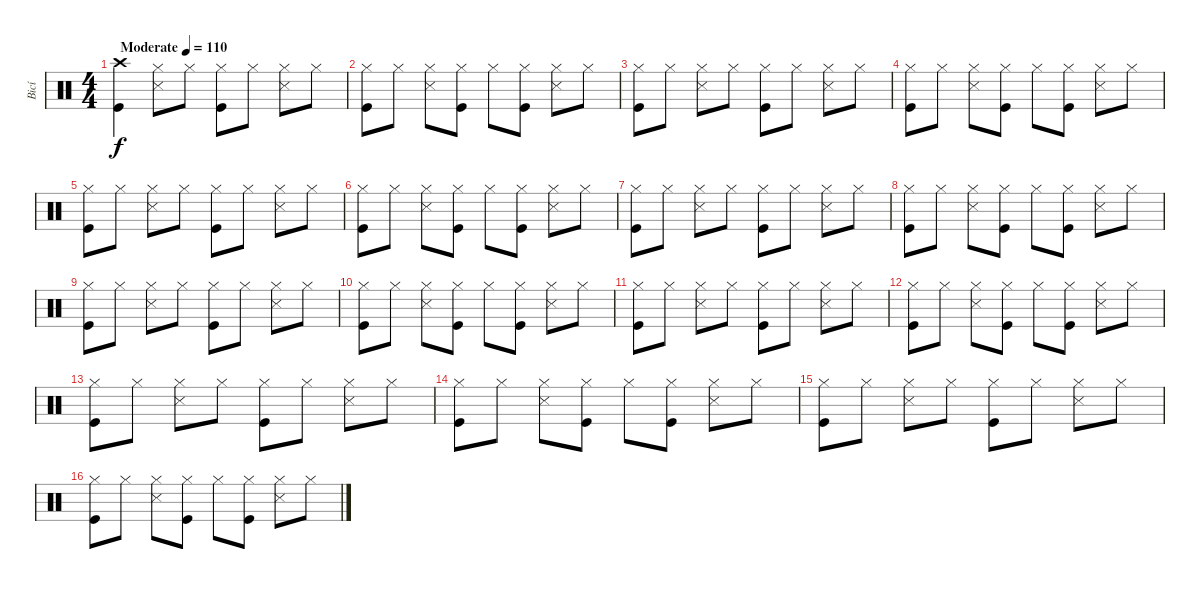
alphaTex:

\track ("Bicí" "Bicí") {instrument percussion}
\staff
\articulation defaults
\ts (4 4)
\tempo (110 "Moderate")
\clef neutral
\ks c
("Crash high (hit)" "Kick (hit)").4{dy f} ("Hi-Hat (closed)" "Snare (side stick) 3").8 "Hi-Hat (closed)".8 ("Hi-Hat (closed)" "Kick (hit)").8 "Hi-Hat (closed)".8 ("Hi-Hat (closed)" "Snare (side stick) 3").8 "Hi-Hat (closed)".8 |
("Hi-Hat (closed)" "Kick (hit)").8 "Hi-Hat (closed)".8 ("Hi-Hat (closed)" "Snare (side stick) 3").8 ("Hi-Hat (closed)" "Kick (hit)").8 "Hi-Hat (closed)".8 ("Hi-Hat (closed)" "Kick (hit)").8 ("Hi-Hat (closed)" "Snare (side stick) 3").8 "Hi-Hat (closed)".8 |
("Hi-Hat (closed)" "Kick (hit)").8 "Hi-Hat (closed)".8 ("Hi-Hat (closed)" "Snare (side stick) 3").8 "Hi-Hat (closed)".8 ("Hi-Hat (closed)" "Kick (hit)").8 "Hi-Hat (closed)".8 ("Hi-Hat (closed)" "Snare (side stick) 3").8 "Hi-Hat (closed)".8 |
("Hi-Hat (closed)" "Kick (hit)").8 "Hi-Hat (closed)".8 ("Hi-Hat (closed)" "Snare (side stick) 3").8 ("Hi-Hat (closed)" "Kick (hit)").8 "Hi-Hat (closed)".8 ("Hi-Hat (closed)" "Kick (hit)").8 ("Hi-Hat (closed)" "Snare (side stick) 3").8 "Hi-Hat (closed)".8 |
("Hi-Hat (closed)" "Kick (hit)").8 "Hi-Hat (closed)".8 ("Hi-Hat (closed)" "Snare (side stick) 3").8 "Hi-Hat (closed)".8 ("Hi-Hat (closed)" "Kick (hit)").8 "Hi-Hat (closed)".8 ("Hi-Hat (closed)" "Snare (side stick) 3").8 "Hi-Hat (closed)".8 |
("Hi-Hat (closed)" "Kick (hit)").8 "Hi-Hat (closed)".8 ("Hi-Hat (closed)" "Snare (side stick) 3").8 ("Hi-Hat (closed)" "Kick (hit)").8 "Hi-Hat (closed)".8 ("Hi-Hat (closed)" "Kick (hit)").8 ("Hi-Hat (closed)" "Snare (side stick) 3").8 "Hi-Hat (closed)".8 |
("Hi-Hat (closed)" "Kick (hit)").8 "Hi-Hat (closed)".8 ("Hi-Hat (closed)" "Snare (side stick) 3").8 "Hi-Hat (closed)".8 ("Hi-Hat (closed)" "Kick (hit)").8 "Hi-Hat (closed)".8 ("Hi-Hat (closed)" "Snare (side stick) 3").8 "Hi-Hat (closed)".8 |
("Hi-Hat (closed)" "Kick (hit)").8 "Hi-Hat (closed)".8 ("Hi-Hat (closed)" "Snare (side stick) 3").8 ("Hi-Hat (closed)" "Kick (hit)").8 "Hi-Hat (closed)".8 ("Hi-Hat (closed)" "Kick (hit)").8 ("Hi-Hat (closed)" "Snare (side stick) 3").8 "Hi-Hat (closed)".8 |
("Hi-Hat (closed)" "Kick (hit)").8 "Hi-Hat (closed)".8 ("Hi-Hat (closed)" "Snare (side stick) 3").8 "Hi-Hat (closed)".8 ("Hi-Hat (closed)" "Kick (hit)").8 "Hi-Hat (closed)".8 ("Hi-Hat (closed)" "Snare (side stick) 3").8 "Hi-Hat (closed)".8 |
("Hi-Hat (closed)" "Kick (hit)").8 "Hi-Hat (closed)".8 ("Hi-Hat (closed)" "Snare (side stick) 3").8 ("Hi-Hat (closed)" "Kick (hit)").8 "Hi-Hat (closed)".8 ("Hi-Hat (closed)" "Kick (hit)").8 ("Hi-Hat (closed)" "Snare (side stick) 3").8 "Hi-Hat (closed)".8 |
("Hi-Hat (closed)" "Kick (hit)").8 "Hi-Hat (closed)".8 ("Hi-Hat (closed)" "Snare (side stick) 3").8 "Hi-Hat (closed)".8 ("Hi-Hat (closed)" "Kick (hit)").8 "Hi-Hat (closed)".8 ("Hi-Hat (closed)" "Snare (side stick) 3").8 "Hi-Hat (closed)".8 |
("Hi-Hat (closed)" "Kick (hit)").8 "Hi-Hat (closed)".8 ("Hi-Hat (closed)" "Snare (side stick) 3").8 ("Hi-Hat (closed)" "Kick (hit)").8 "Hi-Hat (closed)".8 ("Hi-Hat (closed)" "Kick (hit)").8 ("Hi-Hat (closed)" "Snare (side stick) 3").8 "Hi-Hat (closed)".8 |
("Hi-Hat (closed)" "Kick (hit)").8 "Hi-Hat (closed)".8 ("Hi-Hat (closed)" "Snare (side stick) 3").8 "Hi-Hat (closed)".8 ("Hi-Hat (closed)" "Kick (hit)").8 "Hi-Hat (closed)".8 ("Hi-Hat (closed)" "Snare (side stick) 3").8 "Hi-Hat (closed)".8 |
("Hi-Hat (closed)" "Kick (hit)").8 "Hi-Hat (closed)".8 ("Hi-Hat (closed)" "Snare (side stick) 3").8 ("Hi-Hat (closed)" "Kick (hit)").8 "Hi-Hat (closed)".8 ("Hi-Hat (closed)" "Kick (hit)").8 ("Hi-Hat (closed)" "Snare (side stick) 3").8 "Hi-Hat (closed)".8 |
("Hi-Hat (closed)" "Kick (hit)").8 "Hi-Hat (closed)".8 ("Hi-Hat (closed)" "Snare (side stick) 3").8 "Hi-Hat (closed)".8 ("Hi-Hat (closed)" "Kick (hit)").8 "Hi-Hat (closed)".8 ("Hi-Hat (closed)" "Snare (side stick) 3").8 "Hi-Hat (closed)".8 |
("Hi-Hat (closed)" "Kick (hit)").8 "Hi-Hat (closed)".8 ("Hi-Hat (closed)" "Snare (side stick) 3").8 ("Hi-Hat (closed)" "Kick (hit)").8 "Hi-Hat (closed)".8 ("Hi-Hat (closed)" "Kick (hit)").8 ("Hi-Hat (closed)" "Snare (side stick) 3").8 "Hi-Hat (closed)".8
